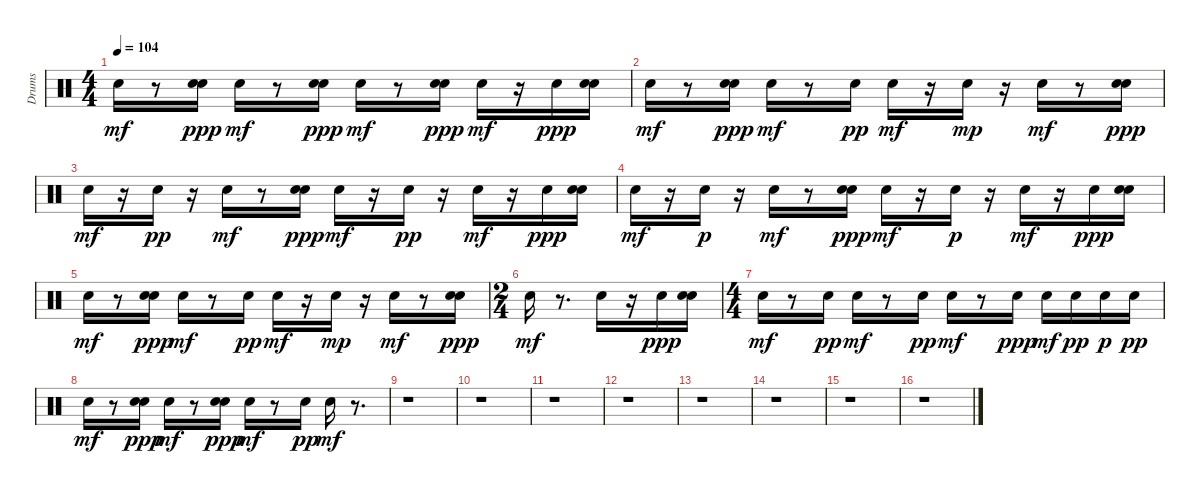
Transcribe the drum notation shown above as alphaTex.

\track ("Drums" "Drums") {instrument percussion}
\staff {score}
\articulation defaults
\ts (4 4)
\tempo 104
\clef neutral
\ks c "Snare (hit) 2".16{dy mf}
r.8 ("Snare (hit) 2" "Snare (hit) 2").16{dy ppp} "Snare (hit) 2".16{dy mf} r.8 ("Snare (hit) 2" "Snare (hit) 2").16{dy ppp} "Snare (hit) 2".16{dy mf} r.8 ("Snare (hit) 2" "Snare (hit) 2").16{dy ppp} "Snare (hit) 2".16{dy mf} r.16 "Snare (hit) 2".16{dy ppp} ("Snare (hit) 2" "Snare (hit) 2").16 |
"Snare (hit) 2".16{dy mf} r.8 ("Snare (hit) 2" "Snare (hit) 2").16{dy ppp} "Snare (hit) 2".16{dy mf} r.8 "Snare (hit) 2".16{dy pp} "Snare (hit) 2".16{dy mf} r.16 "Snare (hit) 2".16{dy mp} r.16 "Snare (hit) 2".16{dy mf} r.8 ("Snare (hit) 2" "Snare (hit) 2").16{dy ppp} |
"Snare (hit) 2".16{dy mf} r.16 "Snare (hit) 2".16{dy pp} r.16 "Snare (hit) 2".16{dy mf} r.8 ("Snare (hit) 2" "Snare (hit) 2").16{dy ppp} "Snare (hit) 2".16{dy mf} r.16 "Snare (hit) 2".16{dy pp} r.16 "Snare (hit) 2".16{dy mf} r.16 "Snare (hit) 2".16{dy ppp} ("Snare (hit) 2" "Snare (hit) 2").16 |
"Snare (hit) 2".16{dy mf} r.16 "Snare (hit) 2".16{dy p} r.16 "Snare (hit) 2".16{dy mf} r.8 ("Snare (hit) 2" "Snare (hit) 2").16{dy ppp} "Snare (hit) 2".16{dy mf} r.16 "Snare (hit) 2".16{dy p} r.16 "Snare (hit) 2".16{dy mf} r.16 "Snare (hit) 2".16{dy ppp} ("Snare (hit) 2" "Snare (hit) 2").16 |
"Snare (hit) 2".16{dy mf} r.8 ("Snare (hit) 2" "Snare (hit) 2").16{dy ppp} "Snare (hit) 2".16{dy mf} r.8 "Snare (hit) 2".16{dy pp} "Snare (hit) 2".16{dy mf} r.16 "Snare (hit) 2".16{dy mp} r.16 "Snare (hit) 2".16{dy mf} r.8 ("Snare (hit) 2" "Snare (hit) 2").16{dy ppp} |
\ts (2 4)
"Snare (hit) 2".16{dy mf} r.8{d} "Snare (hit) 2".16 r.16 "Snare (hit) 2".16{dy ppp} ("Snare (hit) 2" "Snare (hit) 2").16 |
\ts (4 4)
"Snare (hit) 2".16{dy mf} r.8 "Snare (hit) 2".16{dy pp} "Snare (hit) 2".16{dy mf} r.8 "Snare (hit) 2".16{dy pp} "Snare (hit) 2".16{dy mf} r.8 "Snare (hit) 2".16{dy ppp} "Snare (hit) 2".16{dy mf} "Snare (hit) 2".16{dy pp} "Snare (hit) 2".16{dy p} "Snare (hit) 2".16{dy pp} |
"Snare (hit) 2".16{dy mf} r.8 ("Snare (hit) 2" "Snare (hit) 2").16{dy ppp} "Snare (hit) 2".16{dy mf} r.8 ("Snare (hit) 2" "Snare (hit) 2").16{dy ppp} "Snare (hit) 2".16{dy mf} r.8 "Snare (hit) 2".16{dy pp} "Snare (hit) 2".16{dy mf} r.8{d} |
r.1 |
r.1 |
r.1 |
r.1 |
r.1 |
r.1 |
r.1 |
r.1
